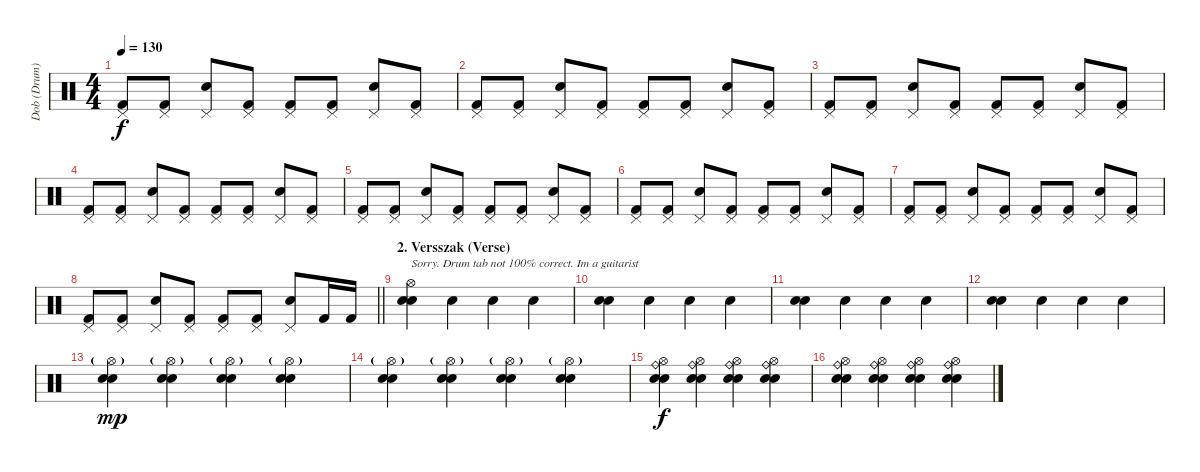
\track ("Dob (Drum)" "Dob (Drum)") {instrument percussion}
\staff {score}
\articulation defaults
\ts (4 4)
\tempo 130
\clef neutral
\ks c
("Pedal Hi-Hat (hit)" "Kick (hit) 2").8{dy f} ("Pedal Hi-Hat (hit)" "Kick (hit) 2").8 ("Pedal Hi-Hat (hit)" "Electric Snare (hit)").8 ("Pedal Hi-Hat (hit)" "Kick (hit) 2").8 ("Pedal Hi-Hat (hit)" "Kick (hit) 2").8 ("Pedal Hi-Hat (hit)" "Kick (hit) 2").8 ("Pedal Hi-Hat (hit)" "Electric Snare (hit)").8 ("Pedal Hi-Hat (hit)" "Kick (hit) 2").8 |
("Pedal Hi-Hat (hit)" "Kick (hit) 2").8 ("Pedal Hi-Hat (hit)" "Kick (hit) 2").8 ("Pedal Hi-Hat (hit)" "Electric Snare (hit)").8 ("Pedal Hi-Hat (hit)" "Kick (hit) 2").8 ("Pedal Hi-Hat (hit)" "Kick (hit) 2").8 ("Pedal Hi-Hat (hit)" "Kick (hit) 2").8 ("Pedal Hi-Hat (hit)" "Electric Snare (hit)").8 ("Pedal Hi-Hat (hit)" "Kick (hit) 2").8 |
("Pedal Hi-Hat (hit)" "Kick (hit) 2").8 ("Pedal Hi-Hat (hit)" "Kick (hit) 2").8 ("Pedal Hi-Hat (hit)" "Electric Snare (hit)").8 ("Pedal Hi-Hat (hit)" "Kick (hit) 2").8 ("Pedal Hi-Hat (hit)" "Kick (hit) 2").8 ("Pedal Hi-Hat (hit)" "Kick (hit) 2").8 ("Pedal Hi-Hat (hit)" "Electric Snare (hit)").8 ("Pedal Hi-Hat (hit)" "Kick (hit) 2").8 |
("Pedal Hi-Hat (hit)" "Kick (hit) 2").8 ("Pedal Hi-Hat (hit)" "Kick (hit) 2").8 ("Pedal Hi-Hat (hit)" "Electric Snare (hit)").8 ("Pedal Hi-Hat (hit)" "Kick (hit) 2").8 ("Pedal Hi-Hat (hit)" "Kick (hit) 2").8 ("Pedal Hi-Hat (hit)" "Kick (hit) 2").8 ("Pedal Hi-Hat (hit)" "Electric Snare (hit)").8 ("Pedal Hi-Hat (hit)" "Kick (hit) 2").8 |
("Pedal Hi-Hat (hit)" "Kick (hit) 2").8 ("Pedal Hi-Hat (hit)" "Kick (hit) 2").8 ("Pedal Hi-Hat (hit)" "Electric Snare (hit)").8 ("Pedal Hi-Hat (hit)" "Kick (hit) 2").8 ("Pedal Hi-Hat (hit)" "Kick (hit) 2").8 ("Pedal Hi-Hat (hit)" "Kick (hit) 2").8 ("Pedal Hi-Hat (hit)" "Electric Snare (hit)").8 ("Pedal Hi-Hat (hit)" "Kick (hit) 2").8 |
("Pedal Hi-Hat (hit)" "Kick (hit) 2").8 ("Pedal Hi-Hat (hit)" "Kick (hit) 2").8 ("Pedal Hi-Hat (hit)" "Electric Snare (hit)").8 ("Pedal Hi-Hat (hit)" "Kick (hit) 2").8 ("Pedal Hi-Hat (hit)" "Kick (hit) 2").8 ("Pedal Hi-Hat (hit)" "Kick (hit) 2").8 ("Pedal Hi-Hat (hit)" "Electric Snare (hit)").8 ("Pedal Hi-Hat (hit)" "Kick (hit) 2").8 |
("Pedal Hi-Hat (hit)" "Kick (hit) 2").8 ("Pedal Hi-Hat (hit)" "Kick (hit) 2").8 ("Pedal Hi-Hat (hit)" "Electric Snare (hit)").8 ("Pedal Hi-Hat (hit)" "Kick (hit) 2").8 ("Pedal Hi-Hat (hit)" "Kick (hit) 2").8 ("Pedal Hi-Hat (hit)" "Kick (hit) 2").8 ("Pedal Hi-Hat (hit)" "Electric Snare (hit)").8 ("Pedal Hi-Hat (hit)" "Kick (hit) 2").8 |
\barLineRight lightlight
("Pedal Hi-Hat (hit)" "Kick (hit) 2").8 ("Pedal Hi-Hat (hit)" "Kick (hit) 2").8 ("Pedal Hi-Hat (hit)" "Electric Snare (hit)").8 ("Pedal Hi-Hat (hit)" "Kick (hit) 2").8 ("Pedal Hi-Hat (hit)" "Kick (hit) 2").8 ("Pedal Hi-Hat (hit)" "Kick (hit) 2").8 ("Pedal Hi-Hat (hit)" "Electric Snare (hit)").8 "Kick (hit) 2".16 "Kick (hit) 2".16 |
\section ("" "2. Versszak (Verse)")
("Hi-Hat (open)" "Electric Snare (hit)" "Snare (hit) 2").4{txt "Sorry. Drum tab not 100% correct. Im a guitarist"} "Snare (hit) 2".4 "Snare (hit) 2".4 "Snare (hit) 2".4 |
("Electric Snare (hit)" "Snare (hit) 2").4 "Snare (hit) 2".4 "Snare (hit) 2".4 "Snare (hit) 2".4 |
("Electric Snare (hit)" "Snare (hit) 2").4 "Snare (hit) 2".4 "Snare (hit) 2".4 "Snare (hit) 2".4 |
("Electric Snare (hit)" "Snare (hit) 2").4 "Snare (hit) 2".4 "Snare (hit) 2".4 "Snare (hit) 2".4 |
("Hi-Hat (open)"{g} "Hand Clap (hit)" "Snare (hit) 2").4{dy mp} ("Hi-Hat (open)"{g} "Hand Clap (hit)" "Snare (hit) 2").4 ("Hi-Hat (open)"{g} "Hand Clap (hit)" "Snare (hit) 2").4 ("Hi-Hat (open)"{g} "Hand Clap (hit)" "Snare (hit) 2").4 |
("Hi-Hat (open)"{g} "Hand Clap (hit)" "Snare (hit) 2").4 ("Hi-Hat (open)"{g} "Hand Clap (hit)" "Snare (hit) 2").4 ("Hi-Hat (open)"{g} "Hand Clap (hit)" "Snare (hit) 2").4 ("Hi-Hat (open)"{g} "Hand Clap (hit)" "Snare (hit) 2").4 |
("Ride (bell)" "Hi-Hat (open)" "Hand Clap (hit)" "Snare (hit) 2").4{dy f} ("Ride (bell)" "Hi-Hat (open)" "Hand Clap (hit)" "Snare (hit) 2").4 ("Ride (bell)" "Hi-Hat (open)" "Hand Clap (hit)" "Snare (hit) 2").4 ("Ride (bell)" "Hi-Hat (open)" "Hand Clap (hit)" "Snare (hit) 2").4 |
("Ride (bell)" "Hi-Hat (open)" "Hand Clap (hit)" "Snare (hit) 2").4 ("Ride (bell)" "Hi-Hat (open)" "Hand Clap (hit)" "Snare (hit) 2").4 ("Ride (bell)" "Hi-Hat (open)" "Hand Clap (hit)" "Snare (hit) 2").4 ("Ride (bell)" "Hi-Hat (open)" "Hand Clap (hit)" "Snare (hit) 2").4
